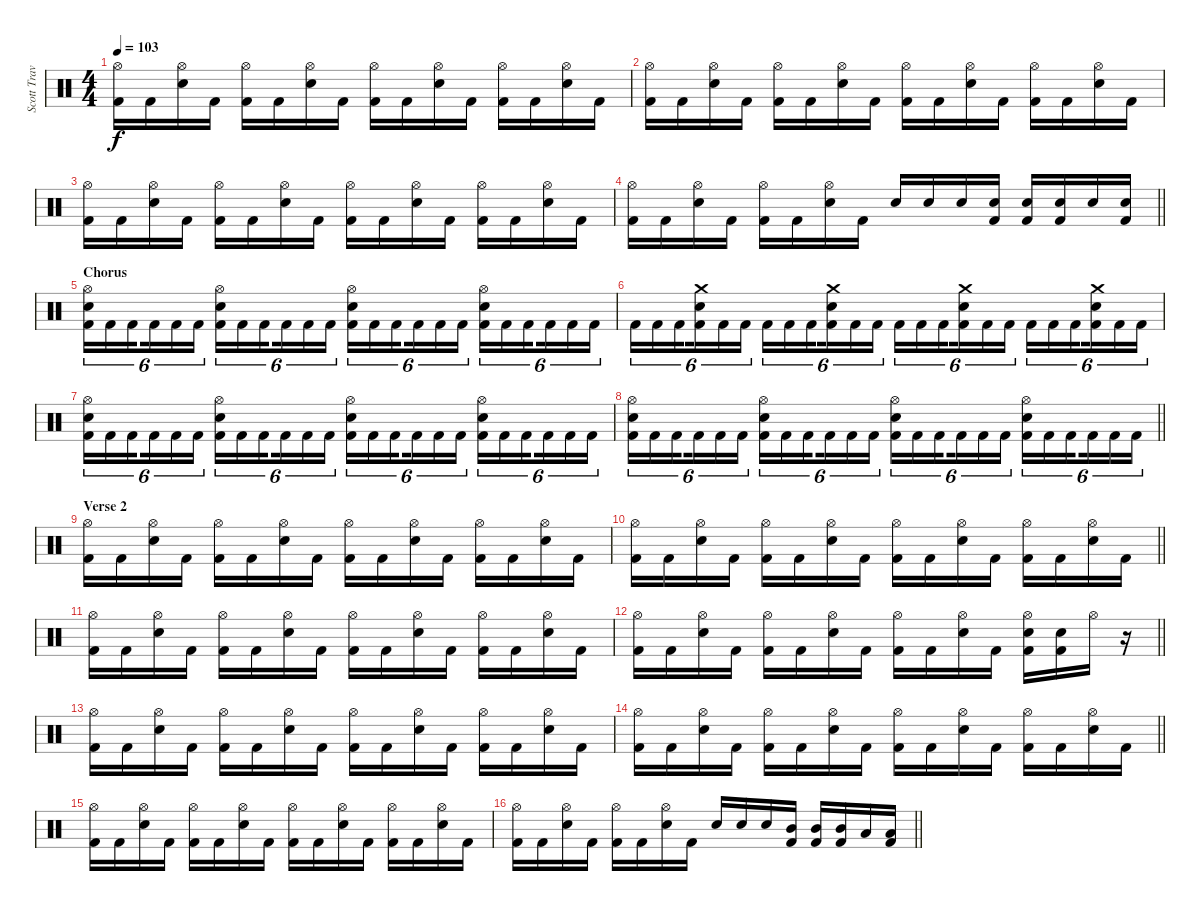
\track ("Scott Travis" "Scott Trav") {instrument percussion}
\staff {score}
\articulation defaults
\ts (4 4)
\tempo 103
\clef neutral
\ks c
("Hi-Hat (open)" "Kick (hit) 2").16{dy f} "Kick (hit) 2".16 ("Hi-Hat (open)" "Snare (hit) 2").16 "Kick (hit) 2".16 ("Hi-Hat (open)" "Kick (hit) 2").16 "Kick (hit) 2".16 ("Hi-Hat (open)" "Snare (hit) 2").16 "Kick (hit) 2".16 ("Hi-Hat (open)" "Kick (hit) 2").16 "Kick (hit) 2".16 ("Hi-Hat (open)" "Snare (hit) 2").16 "Kick (hit) 2".16 ("Hi-Hat (open)" "Kick (hit) 2").16 "Kick (hit) 2".16 ("Hi-Hat (open)" "Snare (hit) 2").16 "Kick (hit) 2".16 |
("Hi-Hat (open)" "Kick (hit) 2").16 "Kick (hit) 2".16 ("Hi-Hat (open)" "Snare (hit) 2").16 "Kick (hit) 2".16 ("Hi-Hat (open)" "Kick (hit) 2").16 "Kick (hit) 2".16 ("Hi-Hat (open)" "Snare (hit) 2").16 "Kick (hit) 2".16 ("Hi-Hat (open)" "Kick (hit) 2").16 "Kick (hit) 2".16 ("Hi-Hat (open)" "Snare (hit) 2").16 "Kick (hit) 2".16 ("Hi-Hat (open)" "Kick (hit) 2").16 "Kick (hit) 2".16 ("Hi-Hat (open)" "Snare (hit) 2").16 "Kick (hit) 2".16 |
("Hi-Hat (open)" "Kick (hit) 2").16 "Kick (hit) 2".16 ("Hi-Hat (open)" "Snare (hit) 2").16 "Kick (hit) 2".16 ("Hi-Hat (open)" "Kick (hit) 2").16 "Kick (hit) 2".16 ("Hi-Hat (open)" "Snare (hit) 2").16 "Kick (hit) 2".16 ("Hi-Hat (open)" "Kick (hit) 2").16 "Kick (hit) 2".16 ("Hi-Hat (open)" "Snare (hit) 2").16 "Kick (hit) 2".16 ("Hi-Hat (open)" "Kick (hit) 2").16 "Kick (hit) 2".16 ("Hi-Hat (open)" "Snare (hit) 2").16 "Kick (hit) 2".16 |
\barLineRight lightlight
("Hi-Hat (open)" "Kick (hit) 2").16 "Kick (hit) 2".16 ("Hi-Hat (open)" "Snare (hit) 2").16 "Kick (hit) 2".16 ("Hi-Hat (open)" "Kick (hit) 2").16 "Kick (hit) 2".16 ("Hi-Hat (open)" "Snare (hit) 2").16 "Kick (hit) 2".16 "Snare (hit) 2".16 "Snare (hit) 2".16 "Snare (hit) 2".16 ("Snare (hit) 2" "Kick (hit) 2").16 ("Snare (hit) 2" "Kick (hit) 2").16 ("Snare (hit) 2" "Kick (hit) 2").16 "Snare (hit) 2".16 ("Snare (hit) 2" "Kick (hit) 2").16 |
\section ("" "Chorus")
("Hi-Hat (open)" "Snare (hit) 2" "Kick (hit) 2").16{tu (6 4)} "Kick (hit) 2".16{tu (6 4)} "Kick (hit) 2".16{tu (6 4) beam splitsecondary} "Kick (hit) 2".16{tu (6 4)} "Kick (hit) 2".16{tu (6 4)} "Kick (hit) 2".16{tu (6 4)} ("Hi-Hat (open)" "Snare (hit) 2" "Kick (hit) 2").16{tu (6 4)} "Kick (hit) 2".16{tu (6 4)} "Kick (hit) 2".16{tu (6 4) beam splitsecondary} "Kick (hit) 2".16{tu (6 4)} "Kick (hit) 2".16{tu (6 4)} "Kick (hit) 2".16{tu (6 4)} ("Hi-Hat (open)" "Snare (hit) 2" "Kick (hit) 2").16{tu (6 4)} "Kick (hit) 2".16{tu (6 4)} "Kick (hit) 2".16{tu (6 4) beam splitsecondary} "Kick (hit) 2".16{tu (6 4)} "Kick (hit) 2".16{tu (6 4)} "Kick (hit) 2".16{tu (6 4)} ("Hi-Hat (open)" "Snare (hit) 2" "Kick (hit) 2").16{tu (6 4)} "Kick (hit) 2".16{tu (6 4)} "Kick (hit) 2".16{tu (6 4) beam splitsecondary} "Kick (hit) 2".16{tu (6 4)} "Kick (hit) 2".16{tu (6 4)} "Kick (hit) 2".16{tu (6 4)} |
"Kick (hit) 2".16{tu (6 4)} "Kick (hit) 2".16{tu (6 4)} "Kick (hit) 2".16{tu (6 4) beam splitsecondary} ("Crash medium (hit)" "Snare (hit) 2" "Kick (hit) 2").16{tu (6 4)} "Kick (hit) 2".16{tu (6 4)} "Kick (hit) 2".16{tu (6 4)} "Kick (hit) 2".16{tu (6 4)} "Kick (hit) 2".16{tu (6 4)} "Kick (hit) 2".16{tu (6 4) beam splitsecondary} ("Crash medium (hit)" "Snare (hit) 2" "Kick (hit) 2").16{tu (6 4)} "Kick (hit) 2".16{tu (6 4)} "Kick (hit) 2".16{tu (6 4)} "Kick (hit) 2".16{tu (6 4)} "Kick (hit) 2".16{tu (6 4)} "Kick (hit) 2".16{tu (6 4) beam splitsecondary} ("Crash medium (hit)" "Snare (hit) 2" "Kick (hit) 2").16{tu (6 4)} "Kick (hit) 2".16{tu (6 4)} "Kick (hit) 2".16{tu (6 4)} "Kick (hit) 2".16{tu (6 4)} "Kick (hit) 2".16{tu (6 4)} "Kick (hit) 2".16{tu (6 4) beam splitsecondary} ("Snare (hit) 2" "Crash medium (hit)" "Kick (hit) 2").16{tu (6 4)} "Kick (hit) 2".16{tu (6 4)} "Kick (hit) 2".16{tu (6 4)} |
("Hi-Hat (open)" "Snare (hit) 2" "Kick (hit) 2").16{tu (6 4)} "Kick (hit) 2".16{tu (6 4)} "Kick (hit) 2".16{tu (6 4) beam splitsecondary} "Kick (hit) 2".16{tu (6 4)} "Kick (hit) 2".16{tu (6 4)} "Kick (hit) 2".16{tu (6 4)} ("Hi-Hat (open)" "Snare (hit) 2" "Kick (hit) 2").16{tu (6 4)} "Kick (hit) 2".16{tu (6 4)} "Kick (hit) 2".16{tu (6 4) beam splitsecondary} "Kick (hit) 2".16{tu (6 4)} "Kick (hit) 2".16{tu (6 4)} "Kick (hit) 2".16{tu (6 4)} ("Hi-Hat (open)" "Snare (hit) 2" "Kick (hit) 2").16{tu (6 4)} "Kick (hit) 2".16{tu (6 4)} "Kick (hit) 2".16{tu (6 4) beam splitsecondary} "Kick (hit) 2".16{tu (6 4)} "Kick (hit) 2".16{tu (6 4)} "Kick (hit) 2".16{tu (6 4)} ("Hi-Hat (open)" "Snare (hit) 2" "Kick (hit) 2").16{tu (6 4)} "Kick (hit) 2".16{tu (6 4)} "Kick (hit) 2".16{tu (6 4) beam splitsecondary} "Kick (hit) 2".16{tu (6 4)} "Kick (hit) 2".16{tu (6 4)} "Kick (hit) 2".16{tu (6 4)} |
\barLineRight lightlight
("Hi-Hat (open)" "Snare (hit) 2" "Kick (hit) 2").16{tu (6 4)} "Kick (hit) 2".16{tu (6 4)} "Kick (hit) 2".16{tu (6 4) beam splitsecondary} "Kick (hit) 2".16{tu (6 4)} "Kick (hit) 2".16{tu (6 4)} "Kick (hit) 2".16{tu (6 4)} ("Hi-Hat (open)" "Snare (hit) 2" "Kick (hit) 2").16{tu (6 4)} "Kick (hit) 2".16{tu (6 4)} "Kick (hit) 2".16{tu (6 4) beam splitsecondary} "Kick (hit) 2".16{tu (6 4)} "Kick (hit) 2".16{tu (6 4)} "Kick (hit) 2".16{tu (6 4)} ("Hi-Hat (open)" "Snare (hit) 2" "Kick (hit) 2").16{tu (6 4)} "Kick (hit) 2".16{tu (6 4)} "Kick (hit) 2".16{tu (6 4) beam splitsecondary} "Kick (hit) 2".16{tu (6 4)} "Kick (hit) 2".16{tu (6 4)} "Kick (hit) 2".16{tu (6 4)} ("Hi-Hat (open)" "Snare (hit) 2" "Kick (hit) 2").16{tu (6 4)} "Kick (hit) 2".16{tu (6 4)} "Kick (hit) 2".16{tu (6 4) beam splitsecondary} "Kick (hit) 2".16{tu (6 4)} "Kick (hit) 2".16{tu (6 4)} "Kick (hit) 2".16{tu (6 4)} |
\section ("" "Verse 2")
("Hi-Hat (open)" "Kick (hit) 2").16 "Kick (hit) 2".16 ("Hi-Hat (open)" "Snare (hit) 2").16 "Kick (hit) 2".16 ("Hi-Hat (open)" "Kick (hit) 2").16 "Kick (hit) 2".16 ("Hi-Hat (open)" "Snare (hit) 2").16 "Kick (hit) 2".16 ("Hi-Hat (open)" "Kick (hit) 2").16 "Kick (hit) 2".16 ("Hi-Hat (open)" "Snare (hit) 2").16 "Kick (hit) 2".16 ("Hi-Hat (open)" "Kick (hit) 2").16 "Kick (hit) 2".16 ("Hi-Hat (open)" "Snare (hit) 2").16 "Kick (hit) 2".16 |
\barLineRight lightlight
("Hi-Hat (open)" "Kick (hit) 2").16 "Kick (hit) 2".16 ("Hi-Hat (open)" "Snare (hit) 2").16 "Kick (hit) 2".16 ("Hi-Hat (open)" "Kick (hit) 2").16 "Kick (hit) 2".16 ("Hi-Hat (open)" "Snare (hit) 2").16 "Kick (hit) 2".16 ("Hi-Hat (open)" "Kick (hit) 2").16 "Kick (hit) 2".16 ("Hi-Hat (open)" "Snare (hit) 2").16 "Kick (hit) 2".16 ("Hi-Hat (open)" "Kick (hit) 2").16 "Kick (hit) 2".16 ("Hi-Hat (open)" "Snare (hit) 2").16 "Kick (hit) 2".16 |
("Hi-Hat (open)" "Kick (hit) 2").16 "Kick (hit) 2".16 ("Hi-Hat (open)" "Snare (hit) 2").16 "Kick (hit) 2".16 ("Hi-Hat (open)" "Kick (hit) 2").16 "Kick (hit) 2".16 ("Hi-Hat (open)" "Snare (hit) 2").16 "Kick (hit) 2".16 ("Hi-Hat (open)" "Kick (hit) 2").16 "Kick (hit) 2".16 ("Hi-Hat (open)" "Snare (hit) 2").16 "Kick (hit) 2".16 ("Hi-Hat (open)" "Kick (hit) 2").16 "Kick (hit) 2".16 ("Hi-Hat (open)" "Snare (hit) 2").16 "Kick (hit) 2".16 |
\barLineRight lightlight
("Hi-Hat (open)" "Kick (hit) 2").16 "Kick (hit) 2".16 ("Hi-Hat (open)" "Snare (hit) 2").16 "Kick (hit) 2".16 ("Hi-Hat (open)" "Kick (hit) 2").16 "Kick (hit) 2".16 ("Hi-Hat (open)" "Snare (hit) 2").16 "Kick (hit) 2".16 ("Hi-Hat (open)" "Kick (hit) 2").16 "Kick (hit) 2".16 ("Hi-Hat (open)" "Snare (hit) 2").16 "Kick (hit) 2".16 ("Hi-Hat (open)" "Snare (hit) 2" "Kick (hit) 2").16 ("Snare (hit) 2" "Kick (hit) 2").16 "Hi-Hat (open)".16 r.16 |
("Hi-Hat (open)" "Kick (hit) 2").16 "Kick (hit) 2".16 ("Hi-Hat (open)" "Snare (hit) 2").16 "Kick (hit) 2".16 ("Hi-Hat (open)" "Kick (hit) 2").16 "Kick (hit) 2".16 ("Hi-Hat (open)" "Snare (hit) 2").16 "Kick (hit) 2".16 ("Hi-Hat (open)" "Kick (hit) 2").16 "Kick (hit) 2".16 ("Hi-Hat (open)" "Snare (hit) 2").16 "Kick (hit) 2".16 ("Hi-Hat (open)" "Kick (hit) 2").16 "Kick (hit) 2".16 ("Hi-Hat (open)" "Snare (hit) 2").16 "Kick (hit) 2".16 |
\barLineRight lightlight
("Hi-Hat (open)" "Kick (hit) 2").16 "Kick (hit) 2".16 ("Hi-Hat (open)" "Snare (hit) 2").16 "Kick (hit) 2".16 ("Hi-Hat (open)" "Kick (hit) 2").16 "Kick (hit) 2".16 ("Hi-Hat (open)" "Snare (hit) 2").16 "Kick (hit) 2".16 ("Hi-Hat (open)" "Kick (hit) 2").16 "Kick (hit) 2".16 ("Hi-Hat (open)" "Snare (hit) 2").16 "Kick (hit) 2".16 ("Hi-Hat (open)" "Kick (hit) 2").16 "Kick (hit) 2".16 ("Hi-Hat (open)" "Snare (hit) 2").16 "Kick (hit) 2".16 |
("Hi-Hat (open)" "Kick (hit) 2").16 "Kick (hit) 2".16 ("Hi-Hat (open)" "Snare (hit) 2").16 "Kick (hit) 2".16 ("Hi-Hat (open)" "Kick (hit) 2").16 "Kick (hit) 2".16 ("Hi-Hat (open)" "Snare (hit) 2").16 "Kick (hit) 2".16 ("Hi-Hat (open)" "Kick (hit) 2").16 "Kick (hit) 2".16 ("Hi-Hat (open)" "Snare (hit) 2").16 "Kick (hit) 2".16 ("Hi-Hat (open)" "Kick (hit) 2").16 "Kick (hit) 2".16 ("Hi-Hat (open)" "Snare (hit) 2").16 "Kick (hit) 2".16 |
\barLineRight lightlight
("Hi-Hat (open)" "Kick (hit) 2").16 "Kick (hit) 2".16 ("Hi-Hat (open)" "Snare (hit) 2").16 "Kick (hit) 2".16 ("Hi-Hat (open)" "Kick (hit) 2").16 "Kick (hit) 2".16 ("Hi-Hat (open)" "Snare (hit) 2").16 "Kick (hit) 2".16 "Snare (hit) 2".16 "Snare (hit) 2".16 "Snare (hit) 2".16 ("Mid Tom (hit)" "Kick (hit) 2").16 ("Mid Tom (hit)" "Kick (hit) 2").16 ("Mid Tom (hit)" "Kick (hit) 2").16 "Low Tom (hit)".16 ("Low Tom (hit)" "Kick (hit) 2").16
